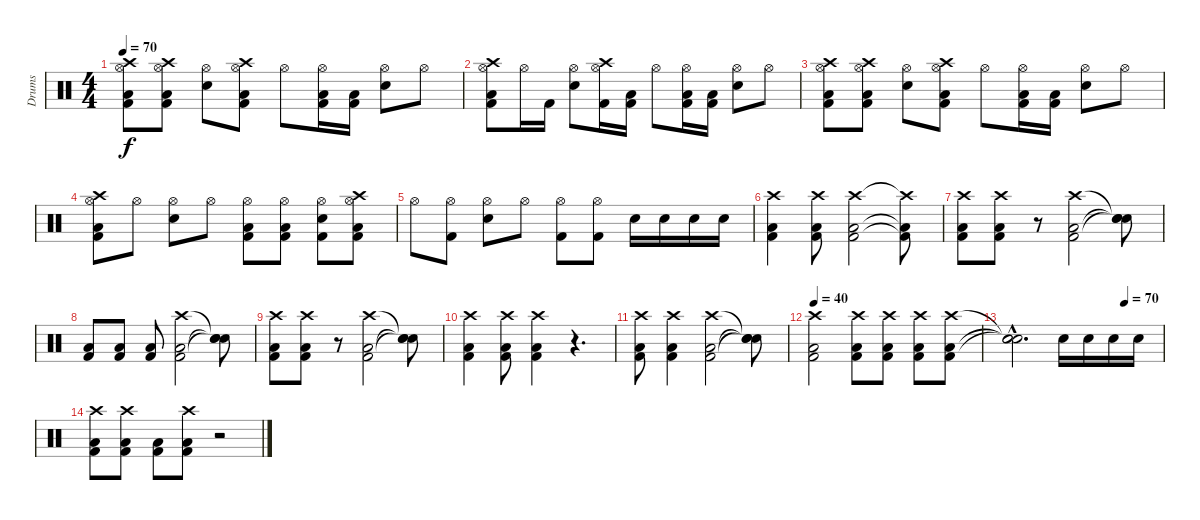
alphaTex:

\track ("Drums" "Drums") {instrument percussion}
\staff {score}
\articulation defaults
\ts (4 4)
\tempo 70
\clef neutral
\ks c
("Crash high (hit)" "Hi-Hat (open)" "Low Floor Tom (hit)" "Kick (hit) 2").8{dy f} ("Crash high (hit)" "Hi-Hat (open)" "Low Floor Tom (hit)" "Kick (hit) 2").8 ("Hi-Hat (open)" "Snare (hit) 2").8 ("Crash high (hit)" "Hi-Hat (open)" "Low Floor Tom (hit)" "Kick (hit) 2").8 "Hi-Hat (open)".8 ("Hi-Hat (open)" "Low Floor Tom (hit)" "Kick (hit) 2").16 ("Low Floor Tom (hit)" "Kick (hit) 2").16 ("Hi-Hat (open)" "Snare (hit) 2").8 "Hi-Hat (open)".8 |
("Crash high (hit)" "Hi-Hat (open)" "Low Floor Tom (hit)" "Kick (hit) 2").8 "Hi-Hat (open)".16 "Kick (hit) 2".16 ("Hi-Hat (open)" "Snare (hit) 2").8 ("Crash high (hit)" "Hi-Hat (open)" "Kick (hit) 2").16 ("Low Floor Tom (hit)" "Kick (hit) 2").16 "Hi-Hat (open)".8 ("Hi-Hat (open)" "Low Floor Tom (hit)" "Kick (hit) 2").16 ("Low Floor Tom (hit)" "Kick (hit) 2").16 ("Hi-Hat (open)" "Snare (hit) 2").8 "Hi-Hat (open)".8 |
("Crash high (hit)" "Hi-Hat (open)" "Low Floor Tom (hit)" "Kick (hit) 2").8 ("Crash high (hit)" "Hi-Hat (open)" "Low Floor Tom (hit)" "Kick (hit) 2").8 ("Hi-Hat (open)" "Snare (hit) 2").8 ("Crash high (hit)" "Hi-Hat (open)" "Low Floor Tom (hit)" "Kick (hit) 2").8 "Hi-Hat (open)".8 ("Hi-Hat (open)" "Low Floor Tom (hit)" "Kick (hit) 2").16 ("Low Floor Tom (hit)" "Kick (hit) 2").16 ("Hi-Hat (open)" "Snare (hit) 2").8 "Hi-Hat (open)".8 |
("Crash high (hit)" "Hi-Hat (open)" "Low Floor Tom (hit)" "Kick (hit) 2").8 "Hi-Hat (open)".8 ("Hi-Hat (open)" "Snare (hit) 2").8 "Hi-Hat (open)".8 ("Hi-Hat (open)" "Low Floor Tom (hit)" "Kick (hit) 2").8 ("Hi-Hat (open)" "Low Floor Tom (hit)" "Kick (hit) 2").8 ("Hi-Hat (open)" "Snare (hit) 2" "Kick (hit) 2").8 ("Crash high (hit)" "Hi-Hat (open)" "Low Floor Tom (hit)" "Kick (hit) 2").8 |
"Hi-Hat (open)".8 ("Hi-Hat (open)" "Kick (hit) 2").8 ("Hi-Hat (open)" "Snare (hit) 2").8 "Hi-Hat (open)".8 ("Hi-Hat (open)" "Kick (hit) 2").8 ("Hi-Hat (open)" "Kick (hit) 2").8 "Snare (hit) 2".16 "Snare (hit) 2".16 "Snare (hit) 2".16 "Snare (hit) 2".16 |
("Crash high (hit)" "Low Floor Tom (hit)" "Kick (hit) 2").4 ("Crash high (hit)" "Low Floor Tom (hit)" "Kick (hit) 2").8 ("Crash high (hit)" "Low Floor Tom (hit)" "Kick (hit) 2").2 ("Crash high (hit)"{t} "Low Floor Tom (hit)"{t} "Kick (hit) 2"{t}).8 |
("Crash high (hit)" "Low Floor Tom (hit)" "Kick (hit) 2").8 ("Crash high (hit)" "Low Floor Tom (hit)" "Kick (hit) 2").8 r.8 ("Crash high (hit)" "Low Floor Tom (hit)" "Kick (hit) 2").2 ("Snare (hit)"{t} "Snare (hit)"{t} "Snare (hit)"{t}).8 |
("Low Floor Tom (hit)" "Kick (hit) 2").8 ("Low Floor Tom (hit)" "Kick (hit) 2").8 ("Low Floor Tom (hit)" "Kick (hit) 2").8 ("Crash high (hit)" "Low Floor Tom (hit)" "Kick (hit) 2").2 ("Snare (hit)"{t} "Snare (hit)"{t} "Snare (hit)"{t}).8 |
("Crash high (hit)" "Low Floor Tom (hit)" "Kick (hit) 2").8 ("Crash high (hit)" "Low Floor Tom (hit)" "Kick (hit) 2").8 r.8 ("Crash high (hit)" "Low Floor Tom (hit)" "Kick (hit) 2").2 ("Snare (hit)"{t} "Snare (hit)"{t} "Snare (hit)"{t}).8 |
("Crash high (hit)" "Low Floor Tom (hit)" "Kick (hit) 2").4 ("Crash high (hit)" "Low Floor Tom (hit)" "Kick (hit) 2").8 ("Crash high (hit)" "Low Floor Tom (hit)" "Kick (hit) 2").4 r.4{d} |
("Crash high (hit)" "Low Floor Tom (hit)" "Kick (hit) 2").8 ("Crash high (hit)" "Low Floor Tom (hit)" "Kick (hit) 2").4 ("Crash high (hit)" "Low Floor Tom (hit)" "Kick (hit) 2").2 ("Snare (hit)"{t} "Snare (hit)"{t} "Snare (hit)"{t}).8 |
\tempo 40
("Crash high (hit)" "Low Floor Tom (hit)" "Kick (hit) 2").2 ("Crash high (hit)" "Low Floor Tom (hit)" "Kick (hit) 2").8 ("Crash high (hit)" "Low Floor Tom (hit)" "Kick (hit) 2").8 ("Crash high (hit)" "Low Floor Tom (hit)" "Kick (hit) 2").8 ("Crash high (hit)" "Low Floor Tom (hit)" "Kick (hit) 2").8 |
\tempo (70 0.75)
("Snare (hit)"{hac t} "Snare (hit)"{hac t} "Snare (hit)"{hac t}).2{d} "Snare (hit) 2".16 "Snare (hit) 2".16 "Snare (hit) 2".16 "Snare (hit) 2".16 |
("Crash high (hit)" "Low Floor Tom (hit)" "Kick (hit) 2").8 ("Crash high (hit)" "Low Floor Tom (hit)" "Kick (hit) 2").8 ("Low Floor Tom (hit)" "Kick (hit) 2").8 ("Crash high (hit)" "Low Floor Tom (hit)" "Kick (hit) 2").8 r.2
